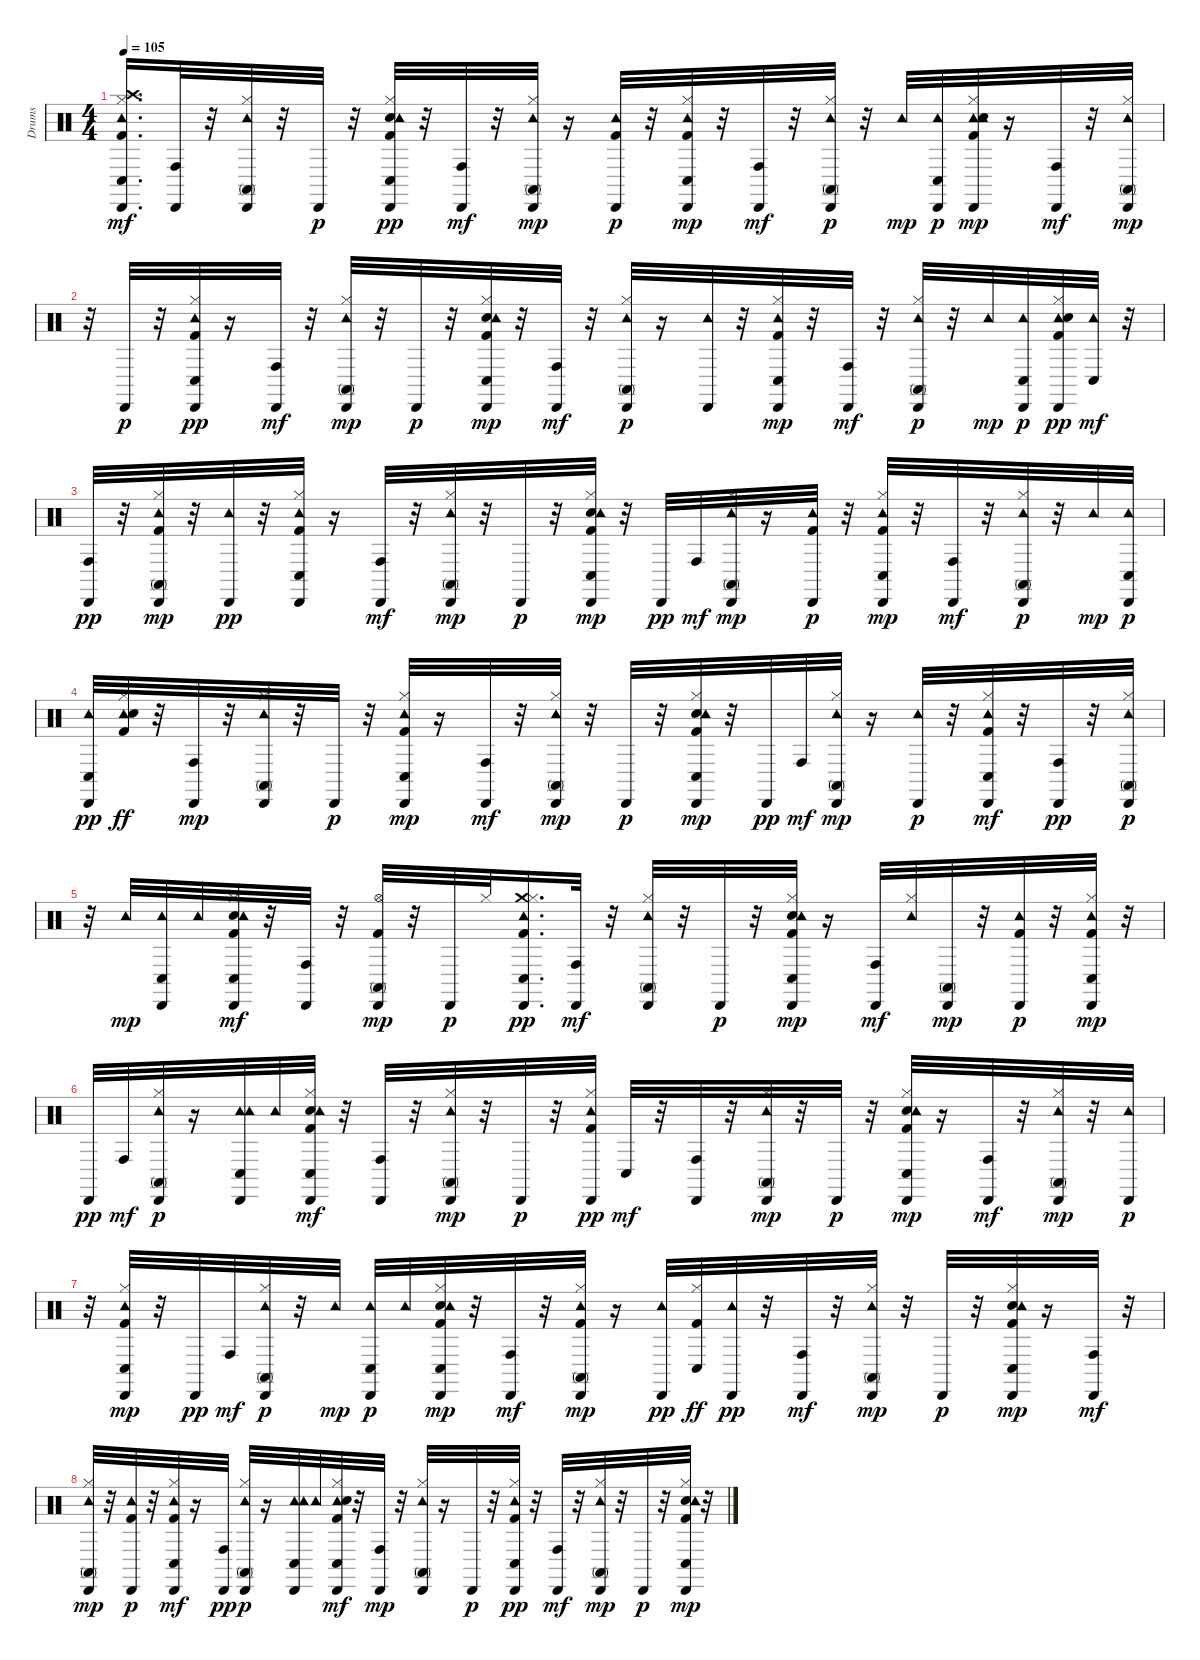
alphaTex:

\track ("Drums" "Drums") {instrument percussion}
\staff {score}
\articulation defaults
\ts (4 4)
\tempo 105
\clef neutral
\ks c
("Kick (hit) 2" "Cabasa (hit)" "Hi-Hat (closed)" "Conga low (hit)" "Tambourine (hit)" "Crash high (hit)").16{d dy mf} ("Cabasa (hit)" "Conga high (hit)").32 r.32 ("Hi-Hat (closed)" "Tambourine (hit)" "Cabasa (hit)" "Conga high (mute)").32 r.32 "Cabasa (hit)".32{dy p} r.32 ("Hi-Hat (closed)" "Snare (hit) 2" "Kick (hit) 2" "Conga low (hit)" "Tambourine (hit)" "Cabasa (hit)").32{dy pp} r.32 ("Cabasa (hit)" "Conga high (hit)").32{dy mf} r.32 ("Tambourine (hit)" "Hi-Hat (closed)" "Conga high (mute)" "Cabasa (hit)").32{dy mp} r.16 ("Tambourine (hit)" "Kick (hit) 2" "Cabasa (hit)").32{dy p} r.32 ("Hi-Hat (closed)" "Kick (hit) 2" "Cabasa (hit)" "Conga low (hit)" "Tambourine (hit)").32{dy mp} r.32 ("Cabasa (hit)" "Conga high (hit)").32{dy mf} r.32 ("Cabasa (hit)" "Hi-Hat (closed)" "Tambourine (hit)" "Conga high (mute)").32{dy p} r.32 "Tambourine (hit)".32{dy mp} ("Cabasa (hit)" "Conga low (hit)" "Tambourine (hit)").32{dy p} ("Tambourine (hit)" "Cabasa (hit)" "Hi-Hat (closed)" "Snare (hit) 2" "Kick (hit) 2" "Tambourine (hit)").32{dy mp} r.16 ("Cabasa (hit)" "Conga high (hit)").32{dy mf} r.32 ("Conga high (mute)" "Hi-Hat (closed)" "Tambourine (hit)" "Cabasa (hit)").32{dy mp} |
r.32 "Cabasa (hit)".32{dy p} r.32 ("Conga low (hit)" "Hi-Hat (closed)" "Kick (hit) 2" "Tambourine (hit)" "Cabasa (hit)").32{dy pp} r.16 ("Cabasa (hit)" "Conga high (hit)").32{dy mf} r.32 ("Hi-Hat (closed)" "Conga high (mute)" "Tambourine (hit)" "Cabasa (hit)").32{dy mp} r.32 "Cabasa (hit)".32{dy p} r.32 ("Hi-Hat (closed)" "Snare (hit) 2" "Kick (hit) 2" "Cabasa (hit)" "Conga low (hit)" "Tambourine (hit)").32{dy mp} r.32 ("Cabasa (hit)" "Conga high (hit)").32{dy mf} r.32 ("Conga high (mute)" "Hi-Hat (closed)" "Cabasa (hit)" "Tambourine (hit)").32{dy p} r.16 ("Tambourine (hit)" "Cabasa (hit)").32 r.32 ("Conga low (hit)" "Hi-Hat (closed)" "Kick (hit) 2" "Cabasa (hit)" "Tambourine (hit)").32{dy mp} r.32 ("Cabasa (hit)" "Conga high (hit)").32{dy mf} r.32 ("Cabasa (hit)" "Hi-Hat (closed)" "Conga high (mute)" "Tambourine (hit)").32{dy p} r.32 "Tambourine (hit)".32{dy mp} ("Cabasa (hit)" "Conga low (hit)" "Tambourine (hit)").32{dy p} ("Tambourine (hit)" "Hi-Hat (closed)" "Snare (hit) 2" "Kick (hit) 2" "Cabasa (hit)").32{dy pp} ("Tambourine (hit)" "Conga low (hit)").32{dy mf} r.32 |
("Conga high (hit)" "Cabasa (hit)").32{dy pp} r.32 ("Conga high (mute)" "Hi-Hat (closed)" "Kick (hit) 2" "Tambourine (hit)" "Cabasa (hit)").32{dy mp} r.32 ("Cabasa (hit)" "Tambourine (hit)").32{dy pp} r.32 ("Hi-Hat (closed)" "Kick (hit) 2" "Conga low (hit)" "Tambourine (hit)" "Cabasa (hit)").32 r.16 ("Cabasa (hit)" "Conga high (hit)").32{dy mf} r.32 ("Tambourine (hit)" "Hi-Hat (closed)" "Conga high (mute)" "Cabasa (hit)").32{dy mp} r.32 "Cabasa (hit)".32{dy p} r.32 ("Hi-Hat (closed)" "Snare (hit) 2" "Kick (hit) 2" "Cabasa (hit)" "Tambourine (hit)" "Conga low (hit)").32{dy mp} r.32 "Cabasa (hit)".32{dy pp} "Conga high (hit)".32{dy mf} ("Hi-Hat (closed)" "Tambourine (hit)" "Cabasa (hit)" "Conga high (mute)").32{dy mp} r.16 ("Tambourine (hit)" "Kick (hit) 2" "Cabasa (hit)").32{dy p} r.32 ("Conga low (hit)" "Hi-Hat (closed)" "Kick (hit) 2" "Cabasa (hit)" "Tambourine (hit)").32{dy mp} r.32 ("Cabasa (hit)" "Conga high (hit)").32{dy mf} r.32 ("Cabasa (hit)" "Hi-Hat (closed)" "Conga high (mute)" "Tambourine (hit)").32{dy p} r.32 "Tambourine (hit)".32{dy mp} ("Cabasa (hit)" "Conga low (hit)" "Tambourine (hit)").32{dy p} |
("Tambourine (hit)" "Conga low (hit)" "Cabasa (hit)").32{dy pp} ("Tambourine (hit)" "Hi-Hat (closed)" "Snare (hit) 2" "Kick (hit) 2").32{dy ff} r.32 ("Cabasa (hit)" "Conga high (hit)").32{dy mp} r.32 ("Hi-Hat (closed)" "Tambourine (hit)" "Conga high (mute)" "Cabasa (hit)").32 r.32 "Cabasa (hit)".32{dy p} r.32 ("Hi-Hat (closed)" "Kick (hit) 2" "Conga low (hit)" "Cabasa (hit)" "Tambourine (hit)").32{dy mp} r.16 ("Cabasa (hit)" "Conga high (hit)").32{dy mf} r.32 ("Conga high (mute)" "Hi-Hat (closed)" "Tambourine (hit)" "Cabasa (hit)").32{dy mp} r.32 "Cabasa (hit)".32{dy p} r.32 ("Hi-Hat (closed)" "Snare (hit) 2" "Kick (hit) 2" "Cabasa (hit)" "Tambourine (hit)" "Conga low (hit)").32{dy mp} r.32 "Cabasa (hit)".32{dy pp} "Conga high (hit)".32{dy mf} ("Hi-Hat (closed)" "Tambourine (hit)" "Cabasa (hit)" "Conga high (mute)").32{dy mp} r.16 ("Tambourine (hit)" "Cabasa (hit)").32{dy p} r.32 ("Hi-Hat (closed)" "Kick (hit) 2" "Cabasa (hit)" "Tambourine (hit)" "Conga low (hit)").32{dy mf} r.32 ("Conga high (hit)" "Cabasa (hit)").32{dy pp} r.32 ("Conga high (mute)" "Cabasa (hit)" "Hi-Hat (closed)" "Tambourine (hit)").32{dy p} |
r.32 "Tambourine (hit)".32{dy mp} ("Cabasa (hit)" "Conga low (hit)" "Tambourine (hit)").32 "Tambourine (hit)".32 ("Cabasa (hit)" "Conga low (hit)" "Hi-Hat (closed)" "Snare (hit) 2" "Kick (hit) 2" "Tambourine (hit)").32{dy mf} r.32 ("Cabasa (hit)" "Conga high (hit)").32 r.32 ("Hi-Hat (open)" "Kick (hit) 2" "Conga high (mute)" "Cabasa (hit)").32{dy mp} r.32 "Cabasa (hit)".32{dy p} "Hi-Hat (closed)".32 ("Crash medium (hit)" "Hi-Hat (closed)" "Kick (hit) 2" "Conga low (hit)" "Tambourine (hit)" "Cabasa (hit)").16{d dy pp} ("Cabasa (hit)" "Conga high (hit)").32{dy mf} r.32 ("Hi-Hat (closed)" "Tambourine (hit)" "Cabasa (hit)" "Conga high (mute)").32 r.32 "Cabasa (hit)".32{dy p} r.32 ("Conga low (hit)" "Hi-Hat (closed)" "Snare (hit) 2" "Kick (hit) 2" "Cabasa (hit)" "Tambourine (hit)").32{dy mp} r.16 ("Cabasa (hit)" "Conga high (hit)").32{dy mf} ("Tambourine (hit)" "Hi-Hat (closed)").32 ("Cabasa (hit)" "Conga high (mute)").32{dy mp} r.32 ("Tambourine (hit)" "Kick (hit) 2" "Cabasa (hit)").32{dy p} r.32 ("Hi-Hat (closed)" "Kick (hit) 2" "Cabasa (hit)" "Conga low (hit)" "Tambourine (hit)").32{dy mp} r.32 |
"Cabasa (hit)".32{dy pp} "Conga high (hit)".32{dy mf} ("Cabasa (hit)" "Hi-Hat (closed)" "Tambourine (hit)" "Conga high (mute)").32{dy p} r.16 ("Tambourine (hit)" "Conga low (hit)" "Cabasa (hit)" "Tambourine (hit)").32 "Tambourine (hit)".32 ("Hi-Hat (closed)" "Snare (hit) 2" "Kick (hit) 2" "Cabasa (hit)" "Tambourine (hit)" "Conga low (hit)").32{dy mf} r.32 ("Cabasa (hit)" "Conga high (hit)").32 r.32 ("Conga high (mute)" "Hi-Hat (closed)" "Tambourine (hit)" "Cabasa (hit)").32{dy mp} r.32 "Cabasa (hit)".32{dy p} r.32 ("Hi-Hat (closed)" "Kick (hit) 2" "Tambourine (hit)" "Cabasa (hit)").32{dy pp} "Conga low (hit)".32{dy mf} r.32 ("Cabasa (hit)" "Conga high (hit)").32 r.32 ("Hi-Hat (closed)" "Tambourine (hit)" "Conga high (mute)" "Cabasa (hit)").32{dy mp} r.32 "Cabasa (hit)".32{dy p} r.32 ("Hi-Hat (closed)" "Snare (hit) 2" "Kick (hit) 2" "Conga low (hit)" "Cabasa (hit)" "Tambourine (hit)").32{dy mp} r.16 ("Cabasa (hit)" "Conga high (hit)").32{dy mf} r.32 ("Hi-Hat (closed)" "Conga high (mute)" "Tambourine (hit)" "Cabasa (hit)").32{dy mp} r.32 ("Tambourine (hit)" "Cabasa (hit)").32{dy p} |
r.32 ("Hi-Hat (closed)" "Kick (hit) 2" "Cabasa (hit)" "Tambourine (hit)" "Conga low (hit)").32{dy mp} r.32 "Cabasa (hit)".32{dy pp} "Conga high (hit)".32{dy mf} ("Cabasa (hit)" "Hi-Hat (closed)" "Tambourine (hit)" "Conga high (mute)").32{dy p} r.32 "Tambourine (hit)".32{dy mp} ("Cabasa (hit)" "Conga low (hit)" "Tambourine (hit)").32{dy p} "Tambourine (hit)".32 ("Cabasa (hit)" "Hi-Hat (closed)" "Snare (hit) 2" "Kick (hit) 2" "Tambourine (hit)" "Conga low (hit)").32{dy mp} r.32 ("Cabasa (hit)" "Conga high (hit)").32{dy mf} r.32 ("Conga high (mute)" "Hi-Hat (closed)" "Kick (hit) 2" "Tambourine (hit)" "Cabasa (hit)").32{dy mp} r.16 ("Cabasa (hit)" "Tambourine (hit)").32{dy pp} ("Conga low (hit)" "Hi-Hat (closed)" "Kick (hit) 2").32{dy ff} ("Tambourine (hit)" "Cabasa (hit)").32{dy pp} r.32 ("Cabasa (hit)" "Conga high (hit)").32{dy mf} r.32 ("Hi-Hat (closed)" "Tambourine (hit)" "Conga high (mute)" "Cabasa (hit)").32{dy mp} r.32 "Cabasa (hit)".32{dy p} r.32 ("Hi-Hat (closed)" "Snare (hit) 2" "Kick (hit) 2" "Conga low (hit)" "Cabasa (hit)" "Tambourine (hit)").32{dy mp} r.16 ("Cabasa (hit)" "Conga high (hit)").32{dy mf} r.32 |
("Hi-Hat (closed)" "Tambourine (hit)" "Cabasa (hit)" "Conga high (mute)").32{dy mp} r.32 ("Tambourine (hit)" "Kick (hit) 2" "Cabasa (hit)").32{dy p} r.32 ("Hi-Hat (closed)" "Kick (hit) 2" "Cabasa (hit)" "Tambourine (hit)" "Conga low (hit)").32{dy mf} r.16 ("Conga high (hit)" "Cabasa (hit)").32{dy pp} ("Conga high (mute)" "Cabasa (hit)" "Hi-Hat (closed)" "Tambourine (hit)").32{dy p} r.16 ("Tambourine (hit)" "Cabasa (hit)" "Conga low (hit)" "Tambourine (hit)").32 "Tambourine (hit)".32 ("Cabasa (hit)" "Tambourine (hit)" "Hi-Hat (closed)" "Snare (hit) 2" "Kick (hit) 2" "Conga low (hit)").32{dy mf} r.32 ("Cabasa (hit)" "Conga high (hit)").32{dy mp} r.32 ("Hi-Hat (closed)" "Tambourine (hit)" "Conga high (mute)" "Cabasa (hit)").32 r.16 "Cabasa (hit)".32{dy p} r.32 ("Conga low (hit)" "Hi-Hat (closed)" "Kick (hit) 2" "Tambourine (hit)" "Cabasa (hit)").32{dy pp} r.32 ("Cabasa (hit)" "Conga high (hit)").32{dy mf} r.32 ("Hi-Hat (closed)" "Conga high (mute)" "Tambourine (hit)" "Cabasa (hit)").32{dy mp} r.32 "Cabasa (hit)".32{dy p} r.32 ("Hi-Hat (closed)" "Snare (hit) 2" "Kick (hit) 2" "Cabasa (hit)" "Conga low (hit)" "Tambourine (hit)").32{dy mp} r.32
